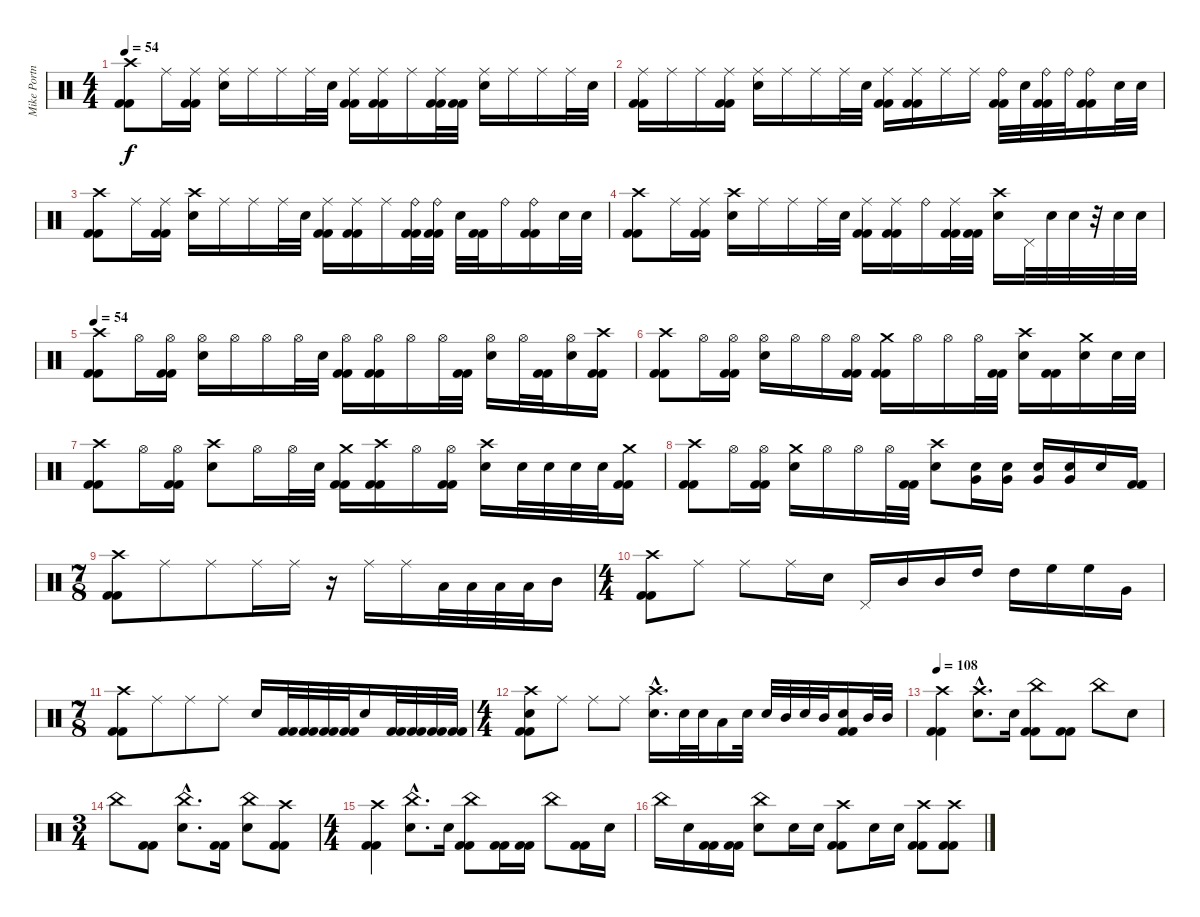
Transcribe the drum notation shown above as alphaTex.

\track ("Mike Portnoy - Drum" "Mike Portn") {instrument percussion}
\staff {score}
\articulation defaults
\ts (4 4)
\tempo 54
\clef neutral
\ks c
("Crash high (hit)" "Kick (hit) 2" "Kick (hit) 2").8{dy f} "Ride (middle)".16 ("Ride (middle)" "Kick (hit) 2" "Kick (hit) 2").16 ("Ride (middle)" "Snare (hit) 2").16 "Ride (middle)".16 "Ride (middle)".16 "Ride (middle)".32 "Snare (hit) 2".32 ("Ride (middle)" "Kick (hit) 2" "Kick (hit) 2").16 ("Ride (middle)" "Kick (hit) 2" "Kick (hit) 2").16 "Ride (middle)".16 ("Ride (middle)" "Kick (hit) 2" "Kick (hit) 2").32 ("Kick (hit) 2" "Kick (hit) 2").32 ("Ride (middle)" "Snare (hit) 2").16 "Ride (middle)".16 "Ride (middle)".16 "Ride (middle)".32 "Snare (hit) 2".32 |
("Ride (middle)" "Kick (hit) 2" "Kick (hit) 2").16 "Ride (middle)".16 "Ride (middle)".16 ("Ride (middle)" "Kick (hit) 2" "Kick (hit) 2").16 ("Ride (middle)" "Snare (hit) 2").16 "Ride (middle)".16 "Ride (middle)".16 "Ride (middle)".32 "Snare (hit) 2".32 ("Ride (middle)" "Kick (hit) 2" "Kick (hit) 2").16 ("Ride (middle)" "Kick (hit) 2" "Kick (hit) 2").16 "Ride (middle)".16 "Ride (middle)".16 ("Ride (bell)" "Kick (hit) 2" "Kick (hit) 2").32 "Snare (hit) 2".32 ("Ride (bell)" "Kick (hit) 2" "Kick (hit) 2").32 "Ride (bell)".32 ("Ride (bell)" "Kick (hit) 2" "Kick (hit) 2").16 "Snare (hit) 2".32 "Snare (hit) 2".32 |
("Crash high (hit)" "Kick (hit) 2" "Kick (hit) 2").8 "Ride (middle)".16 ("Ride (middle)" "Kick (hit) 2" "Kick (hit) 2").16 ("Crash high (hit)" "Snare (hit) 2").16 "Ride (middle)".16 "Ride (middle)".16 "Ride (middle)".32 "Snare (hit) 2".32 ("Ride (middle)" "Kick (hit) 2" "Kick (hit) 2").16 ("Ride (middle)" "Kick (hit) 2" "Kick (hit) 2").16 "Ride (middle)".16 ("Ride (bell)" "Kick (hit) 2" "Kick (hit) 2").32 ("Ride (bell)" "Kick (hit) 2" "Kick (hit) 2").32 "Snare (hit) 2".32 ("Kick (hit) 2" "Kick (hit) 2").32 "Ride (bell)".16 ("Ride (bell)" "Kick (hit) 2" "Kick (hit) 2").16 "Snare (hit) 2".32 "Snare (hit) 2".32 |
("Crash high (hit)" "Kick (hit) 2" "Kick (hit) 2").8 "Ride (middle)".16 ("Ride (middle)" "Kick (hit) 2" "Kick (hit) 2").16 ("Crash high (hit)" "Snare (hit) 2").16 "Ride (middle)".16 "Ride (middle)".16 "Ride (middle)".32 "Snare (hit) 2".32 ("Ride (middle)" "Kick (hit) 2" "Kick (hit) 2").16 ("Ride (middle)" "Kick (hit) 2" "Kick (hit) 2").16 "Ride (bell)".16 ("Ride (middle)" "Kick (hit) 2" "Kick (hit) 2").32 ("Kick (hit) 2" "Kick (hit) 2").32 ("Crash high (hit)" "Snare (hit) 2").16 "Pedal Hi-Hat (hit)".32 "Snare (hit) 2".32 "Snare (hit) 2".32 r.32 "Snare (hit) 2".32 "Snare (hit) 2".32 |
\tempo 54
("Crash high (hit)" "Kick (hit) 2" "Kick (hit) 2").8 "Hi-Hat (open)".16 ("Hi-Hat (open)" "Kick (hit) 2" "Kick (hit) 2").16 ("Hi-Hat (open)" "Snare (hit) 2").16 "Hi-Hat (open)".16 "Hi-Hat (open)".16 "Hi-Hat (open)".32 "Snare (hit) 2".32 ("Hi-Hat (open)" "Kick (hit) 2" "Kick (hit) 2").16 ("Hi-Hat (open)" "Kick (hit) 2" "Kick (hit) 2").16 "Hi-Hat (open)".16 "Hi-Hat (open)".32 ("Kick (hit) 2" "Kick (hit) 2").32 ("Hi-Hat (open)" "Snare (hit) 2").16 "Hi-Hat (open)".32 ("Kick (hit) 2" "Kick (hit) 2").32 ("Hi-Hat (open)" "Snare (hit) 2").16 ("Crash high (hit)" "Kick (hit) 2" "Kick (hit) 2").16 |
("Crash high (hit)" "Kick (hit) 2" "Kick (hit) 2").8 "Hi-Hat (open)".16 ("Hi-Hat (open)" "Kick (hit) 2" "Kick (hit) 2").16 ("Hi-Hat (open)" "Snare (hit) 2").16 "Hi-Hat (open)".16 "Hi-Hat (open)".16 ("Hi-Hat (open)" "Kick (hit) 2" "Kick (hit) 2").16 ("Crash medium (hit)" "Kick (hit) 2" "Kick (hit) 2").16 "Hi-Hat (open)".16 "Hi-Hat (open)".16 "Hi-Hat (open)".32 ("Kick (hit) 2" "Kick (hit) 2").32 ("Crash high (hit)" "Snare (hit) 2").16 ("Kick (hit) 2" "Kick (hit) 2").16 ("Crash medium (hit)" "Snare (hit) 2").16 "Snare (hit) 2".32 "Snare (hit) 2".32 |
("Crash high (hit)" "Kick (hit) 2" "Kick (hit) 2").8 "Hi-Hat (open)".16 ("Hi-Hat (open)" "Kick (hit) 2" "Kick (hit) 2").16 ("Crash high (hit)" "Snare (hit) 2").8 "Hi-Hat (open)".16 "Hi-Hat (open)".32 "Snare (hit) 2".32 ("Crash medium (hit)" "Kick (hit) 2" "Kick (hit) 2").16 ("Crash high (hit)" "Kick (hit) 2" "Kick (hit) 2").16 "Hi-Hat (open)".16 ("Hi-Hat (open)" "Kick (hit) 2" "Kick (hit) 2").16 ("Crash high (hit)" "Snare (hit) 2").16 "Snare (hit) 2".32 "Snare (hit) 2".32 "Snare (hit) 2".32 "Snare (hit) 2".32 ("Crash medium (hit)" "Kick (hit) 2" "Kick (hit) 2").16 |
("Crash high (hit)" "Kick (hit) 2" "Kick (hit) 2").8 "Hi-Hat (open)".16 ("Hi-Hat (open)" "Kick (hit) 2" "Kick (hit) 2").16 ("Crash medium (hit)" "Snare (hit) 2").16 "Hi-Hat (open)".16 "Hi-Hat (open)".16 "Hi-Hat (open)".32 ("Kick (hit) 2" "Kick (hit) 2").32 ("Crash high (hit)" "Snare (hit) 2").8 ("Snare (hit) 2" "Very Low Tom (hit)").16 ("Snare (hit) 2" "Very Low Tom (hit)").16 ("Snare (hit) 2" "Very Low Tom (hit)").16 ("Snare (hit) 2" "Very Low Tom (hit)").16 "Snare (hit) 2".16 ("Kick (hit) 2" "Kick (hit) 2").16 |
\ts (7 8)
("Crash high (hit)" "Kick (hit) 2" "Kick (hit) 2").8 "Ride (middle)".8 "Ride (middle)".8 "Ride (middle)".16 "Ride (middle)".16 r.16 "Ride (middle)".16 "Ride (middle)".16 "Low Tom (hit)".32 "Low Tom (hit)".32 "Low Tom (hit)".32 "Low Tom (hit)".32 "Mid Tom (hit)".16 |
\ts (4 4)
("Crash high (hit)" "Kick (hit) 2" "Kick (hit) 2").8 "Ride (middle)".8 "Ride (middle)".8 "Ride (middle)".16 "Snare (hit) 2".16 "Pedal Hi-Hat (hit)".16 "Mid Tom (hit)".16 "Mid Tom (hit)".16 "High Tom (hit)".16 "High Tom (hit)".16 "High Floor Tom (hit)".16 "High Floor Tom (hit)".16 "Very Low Tom (hit)".16 |
\ts (7 8)
("Crash high (hit)" "Kick (hit) 2" "Kick (hit) 2").8 "Ride (middle)".8 "Ride (middle)".8 "Ride (middle)".8 "Snare (hit) 2".16 ("Kick (hit) 2" "Kick (hit) 2").32 ("Kick (hit) 2" "Kick (hit) 2").32 ("Kick (hit) 2" "Kick (hit) 2").32 ("Kick (hit) 2" "Kick (hit) 2").32 "Snare (hit) 2".16 ("Kick (hit) 2" "Kick (hit) 2").32 ("Kick (hit) 2" "Kick (hit) 2").32 ("Kick (hit) 2" "Kick (hit) 2").32 ("Kick (hit) 2" "Kick (hit) 2").32 |
\ts (4 4)
("Crash high (hit)" "Snare (hit) 2" "Kick (hit) 2" "Kick (hit) 2").8 "Ride (middle)".8 "Ride (middle)".8 "Ride (middle)".8 ("Crash high (hit)"{hac} "Snare (hit) 2"{hac}).16{d} "Snare (hit) 2".32 "Snare (hit) 2".32 "Low Tom (hit)".16 "Snare (hit) 2".32 "Snare (hit) 2".32 "Mid Tom (hit)".32 "Snare (hit) 2".32 "Mid Tom (hit)".32 ("Snare (hit) 2" "Kick (hit) 2" "Kick (hit) 2").16 "Mid Tom (hit)".32 "Mid Tom (hit)".32 |
\tempo 108
("Crash high (hit)" "Kick (hit) 2" "Kick (hit) 2").4 ("Crash high (hit)"{hac} "Snare (hit) 2"{hac}).8{d} "Snare (hit) 2".16 ("China (hit)" "Kick (hit) 2" "Kick (hit) 2").8 ("Kick (hit) 2" "Kick (hit) 2").8 "China (hit)".8 "Snare (hit) 2".8 |
\ts (3 4)
"China (hit)".8 ("Kick (hit) 2" "Kick (hit) 2").8 ("China (hit)"{hac} "Snare (hit) 2"{hac}).8{d} ("Kick (hit) 2" "Kick (hit) 2").16 ("China (hit)" "Snare (hit) 2").8 ("Crash high (hit)" "Kick (hit) 2" "Kick (hit) 2").8 |
\ts (4 4)
("Crash high (hit)" "Kick (hit) 2" "Kick (hit) 2").4 ("China (hit)"{hac} "Snare (hit) 2"{hac}).8{d} "Snare (hit) 2".16 ("China (hit)" "Kick (hit) 2" "Kick (hit) 2").8 ("Kick (hit) 2" "Kick (hit) 2").16 ("Kick (hit) 2" "Kick (hit) 2").16 "China (hit)".8 ("Kick (hit) 2" "Kick (hit) 2").16 "Snare (hit) 2".16 |
"China (hit)".16 "Snare (hit) 2".16 ("Kick (hit) 2" "Kick (hit) 2").16 ("Kick (hit) 2" "Kick (hit) 2").16 ("China (hit)" "Snare (hit) 2").8 "Snare (hit) 2".16 "Snare (hit) 2".16 ("Crash high (hit)" "Kick (hit) 2" "Kick (hit) 2").8 "Snare (hit) 2".16 "Snare (hit) 2".16 ("Crash high (hit)" "Kick (hit) 2" "Kick (hit) 2").8 ("Crash high (hit)" "Kick (hit) 2" "Kick (hit) 2").8
